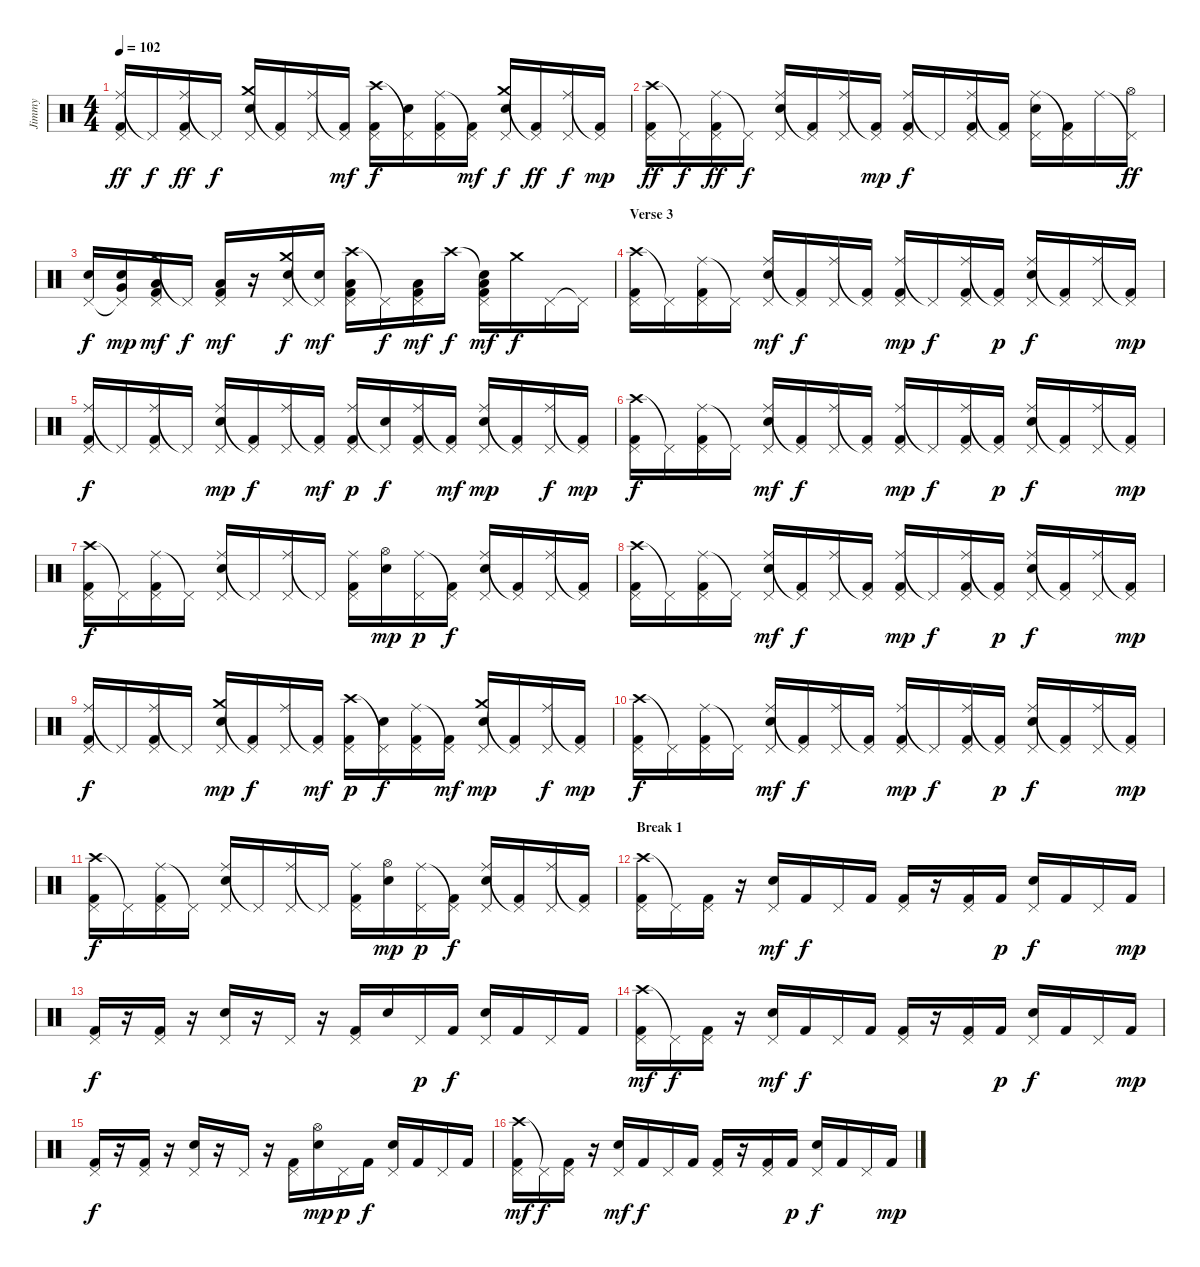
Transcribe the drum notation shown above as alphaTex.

\track ("Jimmy" "Jimmy") {instrument percussion}
\staff {score}
\articulation defaults
\ts (4 4)
\tempo 102
\clef neutral
\ks c
("Ride (middle)" "Pedal Hi-Hat (hit)" "Kick (hit) 2").16{dy ff} "Pedal Hi-Hat (hit)"{t}.16{dy f} ("Ride (middle)" "Pedal Hi-Hat (hit)" "Kick (hit) 2").16{dy ff} "Pedal Hi-Hat (hit)"{t}.16{dy f} ("Crash medium (hit)" "Pedal Hi-Hat (hit)" "Electric Snare (hit)").16 ("Pedal Hi-Hat (hit)"{t} "Kick (hit) 2").16 ("Ride (middle)" "Pedal Hi-Hat (hit)").16 ("Pedal Hi-Hat (hit)"{t} "Kick (hit) 2").16{dy mf} ("Crash high (hit)" "Pedal Hi-Hat (hit)" "Kick (hit) 2").16{dy f} ("Pedal Hi-Hat (hit)"{t} "Electric Snare (hit)").16 ("Ride (middle)" "Pedal Hi-Hat (hit)" "Kick (hit) 2").16 ("Pedal Hi-Hat (hit)"{t} "Kick (hit) 2").16{dy mf} ("Crash medium (hit)" "Pedal Hi-Hat (hit)" "Electric Snare (hit)").16{dy f} ("Pedal Hi-Hat (hit)"{t} "Kick (hit) 2").16{dy ff} ("Ride (middle)" "Pedal Hi-Hat (hit)").16{dy f} ("Pedal Hi-Hat (hit)"{t} "Kick (hit) 2").16{dy mp} |
("Crash high (hit)" "Pedal Hi-Hat (hit)" "Kick (hit) 2").16{dy ff} "Pedal Hi-Hat (hit)"{t}.16{dy f} ("Ride (middle)" "Pedal Hi-Hat (hit)" "Kick (hit) 2").16{dy ff} "Pedal Hi-Hat (hit)"{t}.16{dy f} ("Ride (middle)" "Pedal Hi-Hat (hit)" "Electric Snare (hit)").16 ("Pedal Hi-Hat (hit)"{t} "Kick (hit) 2").16 ("Ride (middle)" "Pedal Hi-Hat (hit)").16 ("Pedal Hi-Hat (hit)"{t} "Kick (hit) 2").16{dy mp} ("Ride (middle)" "Pedal Hi-Hat (hit)" "Kick (hit) 2").16{dy f} "Pedal Hi-Hat (hit)"{t}.16 ("Ride (middle)" "Pedal Hi-Hat (hit)" "Kick (hit) 2").16 ("Pedal Hi-Hat (hit)"{t} "Kick (hit) 2").16 ("Ride (middle)" "Pedal Hi-Hat (hit)" "Electric Snare (hit)").16 ("Pedal Hi-Hat (hit)"{t} "Kick (hit) 2").16 "Ride (middle)".16 ("Pedal Hi-Hat (hit)"{t} "Hi-Hat (open)").16{dy ff} |
("Pedal Hi-Hat (hit)" "Electric Snare (hit)").16{dy f} ("Pedal Hi-Hat (hit)"{t} "Electric Snare (hit)" "Very Low Tom (hit)").16{dy mp} ("Crash medium (hit)" "Pedal Hi-Hat (hit)" "Low Tom (hit)" "Kick (hit) 2").16{dy mf} "Pedal Hi-Hat (hit)"{t}.16{dy f} ("Pedal Hi-Hat (hit)" "Low Tom (hit)" "Kick (hit) 2").16{dy mf} r.16 ("Crash medium (hit)" "Pedal Hi-Hat (hit)" "Electric Snare (hit)").16{dy f} ("Pedal Hi-Hat (hit)"{t} "Electric Snare (hit)").16{dy mf} ("Crash high (hit)" "Pedal Hi-Hat (hit)" "Low Tom (hit)" "Kick (hit) 2").16 "Pedal Hi-Hat (hit)"{t}.16{dy f} ("Pedal Hi-Hat (hit)" "Low Tom (hit)" "Kick (hit) 2").16{dy mf} "Crash high (hit)".16{dy f} ("Snare (hit)"{t} "Pedal Hi-Hat (hit)" "Low Tom (hit)" "Kick (hit) 2").16{dy mf} "Crash medium (hit)".16{dy f} "Pedal Hi-Hat (hit)".16 "Pedal Hi-Hat (hit)"{t}.16 |
\section ("" "Verse 3")
("Crash high (hit)" "Pedal Hi-Hat (hit)" "Kick (hit) 2").16 "Pedal Hi-Hat (hit)"{t}.16 ("Ride (middle)" "Pedal Hi-Hat (hit)" "Kick (hit) 2").16 "Pedal Hi-Hat (hit)"{t}.16 ("Ride (middle)" "Pedal Hi-Hat (hit)" "Electric Snare (hit)").16{dy mf} ("Pedal Hi-Hat (hit)"{t} "Kick (hit) 2").16{dy f} ("Ride (middle)" "Pedal Hi-Hat (hit)").16 ("Pedal Hi-Hat (hit)"{t} "Kick (hit) 2").16 ("Ride (middle)" "Pedal Hi-Hat (hit)" "Kick (hit) 2").16{dy mp} "Pedal Hi-Hat (hit)"{t}.16{dy f} ("Ride (middle)" "Pedal Hi-Hat (hit)" "Kick (hit) 2").16 ("Pedal Hi-Hat (hit)"{t} "Kick (hit) 2").16{dy p} ("Ride (middle)" "Pedal Hi-Hat (hit)" "Electric Snare (hit)").16{dy f} ("Pedal Hi-Hat (hit)"{t} "Kick (hit) 2").16 ("Ride (middle)" "Pedal Hi-Hat (hit)").16 ("Pedal Hi-Hat (hit)"{t} "Kick (hit) 2").16{dy mp} |
("Ride (middle)" "Pedal Hi-Hat (hit)" "Kick (hit) 2").16{dy f} "Pedal Hi-Hat (hit)"{t}.16 ("Ride (middle)" "Pedal Hi-Hat (hit)" "Kick (hit) 2").16 "Pedal Hi-Hat (hit)"{t}.16 ("Ride (middle)" "Pedal Hi-Hat (hit)" "Electric Snare (hit)").16{dy mp} ("Pedal Hi-Hat (hit)"{t} "Kick (hit) 2").16{dy f} ("Ride (middle)" "Pedal Hi-Hat (hit)").16 ("Pedal Hi-Hat (hit)"{t} "Kick (hit) 2").16{dy mf} ("Ride (middle)" "Pedal Hi-Hat (hit)" "Kick (hit) 2").16{dy p} ("Pedal Hi-Hat (hit)"{t} "Electric Snare (hit)").16{dy f} ("Ride (middle)" "Pedal Hi-Hat (hit)" "Kick (hit) 2").16 ("Pedal Hi-Hat (hit)"{t} "Kick (hit) 2").16{dy mf} ("Ride (middle)" "Pedal Hi-Hat (hit)" "Electric Snare (hit)").16{dy mp} ("Pedal Hi-Hat (hit)"{t} "Kick (hit) 2").16 ("Ride (middle)" "Pedal Hi-Hat (hit)").16{dy f} ("Pedal Hi-Hat (hit)"{t} "Kick (hit) 2").16{dy mp} |
("Crash high (hit)" "Pedal Hi-Hat (hit)" "Kick (hit) 2").16{dy f} "Pedal Hi-Hat (hit)"{t}.16 ("Ride (middle)" "Pedal Hi-Hat (hit)" "Kick (hit) 2").16 "Pedal Hi-Hat (hit)"{t}.16 ("Ride (middle)" "Pedal Hi-Hat (hit)" "Electric Snare (hit)").16{dy mf} ("Pedal Hi-Hat (hit)"{t} "Kick (hit) 2").16{dy f} ("Ride (middle)" "Pedal Hi-Hat (hit)").16 ("Pedal Hi-Hat (hit)"{t} "Kick (hit) 2").16 ("Ride (middle)" "Pedal Hi-Hat (hit)" "Kick (hit) 2").16{dy mp} "Pedal Hi-Hat (hit)"{t}.16{dy f} ("Ride (middle)" "Pedal Hi-Hat (hit)" "Kick (hit) 2").16 ("Pedal Hi-Hat (hit)"{t} "Kick (hit) 2").16{dy p} ("Ride (middle)" "Pedal Hi-Hat (hit)" "Electric Snare (hit)").16{dy f} ("Pedal Hi-Hat (hit)"{t} "Kick (hit) 2").16 ("Ride (middle)" "Pedal Hi-Hat (hit)").16 ("Pedal Hi-Hat (hit)"{t} "Kick (hit) 2").16{dy mp} |
("Crash high (hit)" "Pedal Hi-Hat (hit)" "Kick (hit) 2").16{dy f} "Pedal Hi-Hat (hit)"{t}.16 ("Ride (middle)" "Pedal Hi-Hat (hit)" "Kick (hit) 2").16 "Pedal Hi-Hat (hit)"{t}.16 ("Ride (middle)" "Pedal Hi-Hat (hit)" "Electric Snare (hit)").16 "Pedal Hi-Hat (hit)"{t}.16 ("Ride (middle)" "Pedal Hi-Hat (hit)").16 "Pedal Hi-Hat (hit)"{t}.16 ("Ride (middle)" "Pedal Hi-Hat (hit)" "Kick (hit) 2").16 ("Hi-Hat (open)" "Electric Snare (hit)").16{dy mp} ("Ride (middle)" "Pedal Hi-Hat (hit)").16{dy p} ("Pedal Hi-Hat (hit)"{t} "Kick (hit) 2").16{dy f} ("Ride (middle)" "Pedal Hi-Hat (hit)" "Electric Snare (hit)").16 ("Pedal Hi-Hat (hit)"{t} "Kick (hit) 2").16 ("Ride (middle)" "Pedal Hi-Hat (hit)").16 ("Pedal Hi-Hat (hit)"{t} "Kick (hit) 2").16 |
("Crash high (hit)" "Pedal Hi-Hat (hit)" "Kick (hit) 2").16 "Pedal Hi-Hat (hit)"{t}.16 ("Ride (middle)" "Pedal Hi-Hat (hit)" "Kick (hit) 2").16 "Pedal Hi-Hat (hit)"{t}.16 ("Ride (middle)" "Pedal Hi-Hat (hit)" "Electric Snare (hit)").16{dy mf} ("Pedal Hi-Hat (hit)"{t} "Kick (hit) 2").16{dy f} ("Ride (middle)" "Pedal Hi-Hat (hit)").16 ("Pedal Hi-Hat (hit)"{t} "Kick (hit) 2").16 ("Ride (middle)" "Pedal Hi-Hat (hit)" "Kick (hit) 2").16{dy mp} "Pedal Hi-Hat (hit)"{t}.16{dy f} ("Ride (middle)" "Pedal Hi-Hat (hit)" "Kick (hit) 2").16 ("Pedal Hi-Hat (hit)"{t} "Kick (hit) 2").16{dy p} ("Ride (middle)" "Pedal Hi-Hat (hit)" "Electric Snare (hit)").16{dy f} ("Pedal Hi-Hat (hit)"{t} "Kick (hit) 2").16 ("Ride (middle)" "Pedal Hi-Hat (hit)").16 ("Pedal Hi-Hat (hit)"{t} "Kick (hit) 2").16{dy mp} |
("Ride (middle)" "Pedal Hi-Hat (hit)" "Kick (hit) 2").16{dy f} "Pedal Hi-Hat (hit)"{t}.16 ("Ride (middle)" "Pedal Hi-Hat (hit)" "Kick (hit) 2").16 "Pedal Hi-Hat (hit)"{t}.16 ("Crash medium (hit)" "Pedal Hi-Hat (hit)" "Electric Snare (hit)").16{dy mp} ("Pedal Hi-Hat (hit)"{t} "Kick (hit) 2").16{dy f} ("Ride (middle)" "Pedal Hi-Hat (hit)").16 ("Pedal Hi-Hat (hit)"{t} "Kick (hit) 2").16{dy mf} ("Crash high (hit)" "Pedal Hi-Hat (hit)" "Kick (hit) 2").16{dy p} ("Pedal Hi-Hat (hit)"{t} "Electric Snare (hit)").16{dy f} ("Ride (middle)" "Pedal Hi-Hat (hit)" "Kick (hit) 2").16 ("Pedal Hi-Hat (hit)"{t} "Kick (hit) 2").16{dy mf} ("Crash medium (hit)" "Pedal Hi-Hat (hit)" "Electric Snare (hit)").16{dy mp} ("Pedal Hi-Hat (hit)"{t} "Kick (hit) 2").16 ("Ride (middle)" "Pedal Hi-Hat (hit)").16{dy f} ("Pedal Hi-Hat (hit)"{t} "Kick (hit) 2").16{dy mp} |
("Crash high (hit)" "Pedal Hi-Hat (hit)" "Kick (hit) 2").16{dy f} "Pedal Hi-Hat (hit)"{t}.16 ("Ride (middle)" "Pedal Hi-Hat (hit)" "Kick (hit) 2").16 "Pedal Hi-Hat (hit)"{t}.16 ("Ride (middle)" "Pedal Hi-Hat (hit)" "Electric Snare (hit)").16{dy mf} ("Pedal Hi-Hat (hit)"{t} "Kick (hit) 2").16{dy f} ("Ride (middle)" "Pedal Hi-Hat (hit)").16 ("Pedal Hi-Hat (hit)"{t} "Kick (hit) 2").16 ("Ride (middle)" "Pedal Hi-Hat (hit)" "Kick (hit) 2").16{dy mp} "Pedal Hi-Hat (hit)"{t}.16{dy f} ("Ride (middle)" "Pedal Hi-Hat (hit)" "Kick (hit) 2").16 ("Pedal Hi-Hat (hit)"{t} "Kick (hit) 2").16{dy p} ("Ride (middle)" "Pedal Hi-Hat (hit)" "Electric Snare (hit)").16{dy f} ("Pedal Hi-Hat (hit)"{t} "Kick (hit) 2").16 ("Ride (middle)" "Pedal Hi-Hat (hit)").16 ("Pedal Hi-Hat (hit)"{t} "Kick (hit) 2").16{dy mp} |
("Crash high (hit)" "Pedal Hi-Hat (hit)" "Kick (hit) 2").16{dy f} "Pedal Hi-Hat (hit)"{t}.16 ("Ride (middle)" "Pedal Hi-Hat (hit)" "Kick (hit) 2").16 "Pedal Hi-Hat (hit)"{t}.16 ("Ride (middle)" "Pedal Hi-Hat (hit)" "Electric Snare (hit)").16 "Pedal Hi-Hat (hit)"{t}.16 ("Ride (middle)" "Pedal Hi-Hat (hit)").16 "Pedal Hi-Hat (hit)"{t}.16 ("Ride (middle)" "Pedal Hi-Hat (hit)" "Kick (hit) 2").16 ("Hi-Hat (open)" "Electric Snare (hit)").16{dy mp} ("Ride (middle)" "Pedal Hi-Hat (hit)").16{dy p} ("Pedal Hi-Hat (hit)"{t} "Kick (hit) 2").16{dy f} ("Ride (middle)" "Pedal Hi-Hat (hit)" "Electric Snare (hit)").16 ("Pedal Hi-Hat (hit)"{t} "Kick (hit) 2").16 ("Ride (middle)" "Pedal Hi-Hat (hit)").16 ("Pedal Hi-Hat (hit)"{t} "Kick (hit) 2").16 |
\section ("" "Break 1")
("Crash high (hit)" "Pedal Hi-Hat (hit)" "Kick (hit) 2").16{volume 15} "Pedal Hi-Hat (hit)"{t}.16 ("Pedal Hi-Hat (hit)" "Kick (hit) 2").16 r.16 ("Pedal Hi-Hat (hit)" "Electric Snare (hit)").16{dy mf} "Kick (hit) 2".16{dy f} "Pedal Hi-Hat (hit)".16 "Kick (hit) 2".16 ("Pedal Hi-Hat (hit)" "Kick (hit) 2").16 r.16 ("Pedal Hi-Hat (hit)" "Kick (hit) 2").16 "Kick (hit) 2".16{dy p} ("Pedal Hi-Hat (hit)" "Electric Snare (hit)").16{dy f} "Kick (hit) 2".16 "Pedal Hi-Hat (hit)".16 "Kick (hit) 2".16{dy mp} |
("Pedal Hi-Hat (hit)" "Kick (hit) 2").16{dy f} r.16 ("Pedal Hi-Hat (hit)" "Kick (hit) 2").16 r.16 ("Pedal Hi-Hat (hit)" "Electric Snare (hit)").16 r.16 "Pedal Hi-Hat (hit)".16 r.16 ("Pedal Hi-Hat (hit)" "Kick (hit) 2").16 "Electric Snare (hit)".16 "Pedal Hi-Hat (hit)".16{dy p} "Kick (hit) 2".16{dy f} ("Pedal Hi-Hat (hit)" "Electric Snare (hit)").16 "Kick (hit) 2".16 "Pedal Hi-Hat (hit)".16 "Kick (hit) 2".16 |
("Crash high (hit)" "Pedal Hi-Hat (hit)" "Kick (hit) 2").16{dy mf} "Pedal Hi-Hat (hit)"{t}.16{dy f} ("Pedal Hi-Hat (hit)" "Kick (hit) 2").16 r.16 ("Pedal Hi-Hat (hit)" "Electric Snare (hit)").16{dy mf} "Kick (hit) 2".16{dy f} "Pedal Hi-Hat (hit)".16 "Kick (hit) 2".16 ("Pedal Hi-Hat (hit)" "Kick (hit) 2").16 r.16 ("Pedal Hi-Hat (hit)" "Kick (hit) 2").16 "Kick (hit) 2".16{dy p} ("Pedal Hi-Hat (hit)" "Electric Snare (hit)").16{dy f} "Kick (hit) 2".16 "Pedal Hi-Hat (hit)".16 "Kick (hit) 2".16{dy mp} |
("Pedal Hi-Hat (hit)" "Kick (hit) 2").16{dy f} r.16 ("Pedal Hi-Hat (hit)" "Kick (hit) 2").16 r.16 ("Pedal Hi-Hat (hit)" "Electric Snare (hit)").16 r.16 "Pedal Hi-Hat (hit)".16 r.16 ("Pedal Hi-Hat (hit)" "Kick (hit) 2").16 ("Hi-Hat (open)" "Electric Snare (hit)").16{dy mp} "Pedal Hi-Hat (hit)".16{dy p} "Kick (hit) 2".16{dy f} ("Pedal Hi-Hat (hit)" "Electric Snare (hit)").16 "Kick (hit) 2".16 "Pedal Hi-Hat (hit)".16 "Kick (hit) 2".16 |
("Crash high (hit)" "Pedal Hi-Hat (hit)" "Kick (hit) 2").16{dy mf} "Pedal Hi-Hat (hit)"{t}.16{dy f} ("Pedal Hi-Hat (hit)" "Kick (hit) 2").16 r.16 ("Pedal Hi-Hat (hit)" "Electric Snare (hit)").16{dy mf} "Kick (hit) 2".16{dy f} "Pedal Hi-Hat (hit)".16 "Kick (hit) 2".16 ("Pedal Hi-Hat (hit)" "Kick (hit) 2").16 r.16 ("Pedal Hi-Hat (hit)" "Kick (hit) 2").16 "Kick (hit) 2".16{dy p} ("Pedal Hi-Hat (hit)" "Electric Snare (hit)").16{dy f} "Kick (hit) 2".16 "Pedal Hi-Hat (hit)".16 "Kick (hit) 2".16{dy mp}
